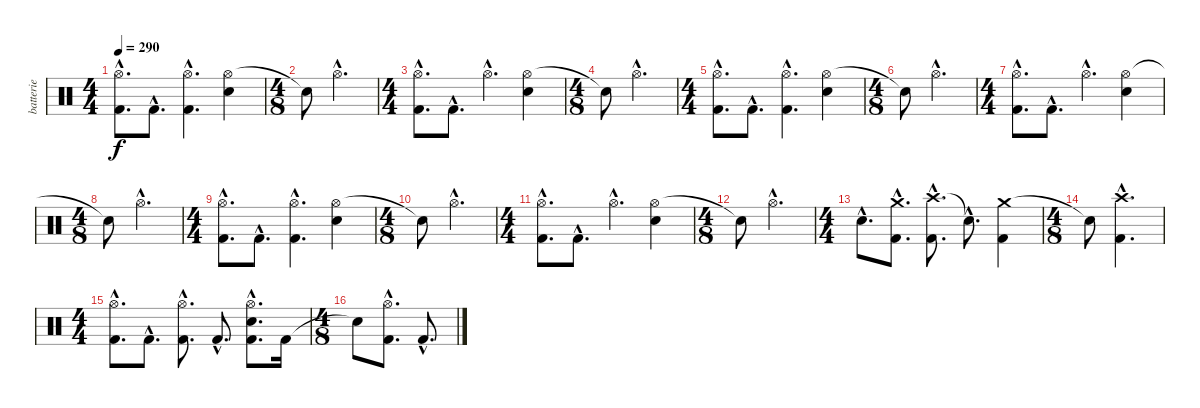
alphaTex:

\track ("batterie" "batterie") {instrument percussion}
\staff {score}
\articulation defaults
\ts (4 4)
\tempo 290
\clef neutral
\ks c
("Hi-Hat (open)"{hac} "Kick (hit) 2"{hac}).8{d dy f} "Kick (hit) 2"{hac}.8{d} ("Hi-Hat (open)"{hac} "Kick (hit) 2"{hac}).4{d} ("Hi-Hat (open)" "Electric Snare (hit)").4 |
\ts (4 8)
"Snare (hit)"{t}.8 "Hi-Hat (open)"{hac}.4{d} |
\ts (4 4)
("Hi-Hat (open)"{hac} "Kick (hit) 2"{hac}).8{d} "Kick (hit) 2"{hac}.8{d} "Hi-Hat (open)"{hac}.4{d} ("Hi-Hat (open)" "Electric Snare (hit)").4 |
\ts (4 8)
"Snare (hit)"{t}.8 "Hi-Hat (open)"{hac}.4{d} |
\ts (4 4)
("Hi-Hat (open)"{hac} "Kick (hit) 2"{hac}).8{d} "Kick (hit) 2"{hac}.8{d} ("Hi-Hat (open)"{hac} "Kick (hit) 2"{hac}).4{d} ("Hi-Hat (open)" "Electric Snare (hit)").4 |
\ts (4 8)
"Snare (hit)"{t}.8 "Hi-Hat (open)"{hac}.4{d} |
\ts (4 4)
("Hi-Hat (open)"{hac} "Kick (hit) 2"{hac}).8{d} "Kick (hit) 2"{hac}.8{d} "Hi-Hat (open)"{hac}.4{d} ("Hi-Hat (open)" "Electric Snare (hit)").4 |
\ts (4 8)
"Snare (hit)"{t}.8 "Hi-Hat (open)"{hac}.4{d} |
\ts (4 4)
("Hi-Hat (open)"{hac} "Kick (hit) 2"{hac}).8{d} "Kick (hit) 2"{hac}.8{d} ("Hi-Hat (open)"{hac} "Kick (hit) 2"{hac}).4{d} ("Hi-Hat (open)" "Electric Snare (hit)").4 |
\ts (4 8)
"Snare (hit)"{t}.8 "Hi-Hat (open)"{hac}.4{d} |
\ts (4 4)
("Hi-Hat (open)"{hac} "Kick (hit) 2"{hac}).8{d} "Kick (hit) 2"{hac}.8{d} "Hi-Hat (open)"{hac}.4{d} ("Hi-Hat (open)" "Electric Snare (hit)").4 |
\ts (4 8)
"Snare (hit)"{t}.8 "Hi-Hat (open)"{hac}.4{d} |
\ts (4 4)
"Electric Snare (hit)"{hac}.8{d} ("Crash medium (hit)"{hac} "Kick (hit) 2"{hac}).8{d} ("Crash high (hit)"{hac} "Kick (hit) 2"{hac}).8{d} "Snare (hit)"{hac t}.8{d} ("Crash medium (hit)" "Kick (hit) 2").4 |
\ts (4 8)
"Snare (hit)"{t}.8 ("Crash high (hit)"{hac} "Kick (hit) 2"{hac}).4{d} |
\ts (4 4)
("Hi-Hat (open)"{hac} "Kick (hit) 2"{hac}).8{d} "Kick (hit) 2"{hac}.8{d} ("Hi-Hat (open)"{hac} "Kick (hit) 2"{hac}).8{d} "Kick (hit) 2"{hac}.8{d} ("Hi-Hat (open)"{hac} "Electric Snare (hit)"{hac} "Kick (hit) 2"{hac}).8{d} "Kick (hit) 2".16 |
\ts (4 8)
"Snare (hit)"{t}.8 ("Hi-Hat (open)"{hac} "Kick (hit) 2"{hac}).8{d} "Kick (hit) 2"{hac}.8{d}
